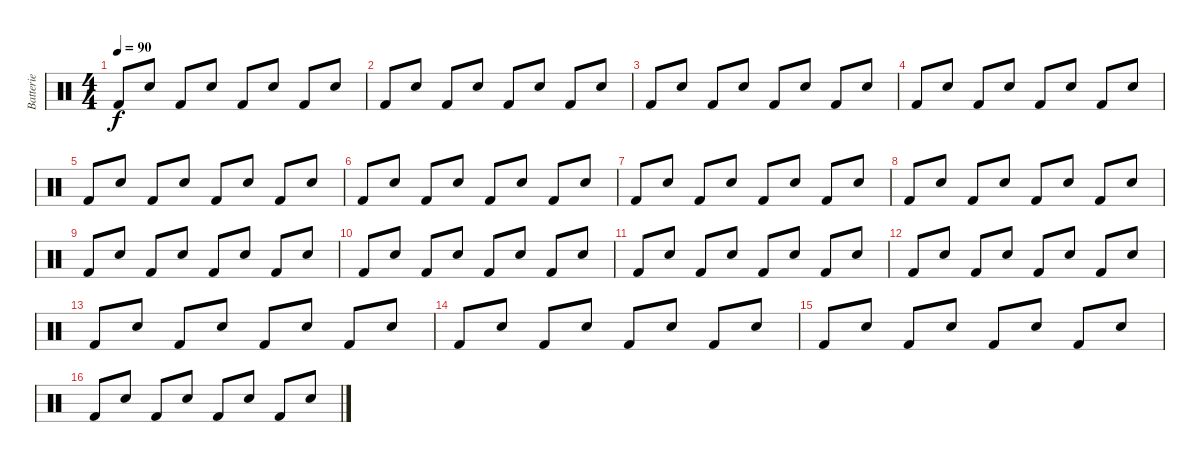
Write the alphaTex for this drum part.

\track ("Batterie" "Batterie") {instrument percussion}
\staff {score}
\articulation defaults
\ts (4 4)
\tempo 90
\clef neutral
\ks c "Kick (hit) 2".8{dy f} "Electric Snare (hit)".8 "Kick (hit) 2".8 "Electric Snare (hit)".8 "Kick (hit) 2".8 "Electric Snare (hit)".8 "Kick (hit) 2".8 "Electric Snare (hit)".8
|
"Kick (hit) 2".8 "Electric Snare (hit)".8 "Kick (hit) 2".8 "Electric Snare (hit)".8 "Kick (hit) 2".8 "Electric Snare (hit)".8 "Kick (hit) 2".8 "Electric Snare (hit)".8 |
"Kick (hit) 2".8 "Electric Snare (hit)".8 "Kick (hit) 2".8 "Electric Snare (hit)".8 "Kick (hit) 2".8 "Electric Snare (hit)".8 "Kick (hit) 2".8 "Electric Snare (hit)".8 |
"Kick (hit) 2".8 "Electric Snare (hit)".8 "Kick (hit) 2".8 "Electric Snare (hit)".8 "Kick (hit) 2".8 "Electric Snare (hit)".8 "Kick (hit) 2".8 "Electric Snare (hit)".8 |
"Kick (hit) 2".8 "Electric Snare (hit)".8 "Kick (hit) 2".8 "Electric Snare (hit)".8 "Kick (hit) 2".8 "Electric Snare (hit)".8 "Kick (hit) 2".8 "Electric Snare (hit)".8 |
"Kick (hit) 2".8 "Electric Snare (hit)".8 "Kick (hit) 2".8 "Electric Snare (hit)".8 "Kick (hit) 2".8 "Electric Snare (hit)".8 "Kick (hit) 2".8 "Electric Snare (hit)".8 |
"Kick (hit) 2".8 "Electric Snare (hit)".8 "Kick (hit) 2".8 "Electric Snare (hit)".8 "Kick (hit) 2".8 "Electric Snare (hit)".8 "Kick (hit) 2".8 "Electric Snare (hit)".8 |
"Kick (hit) 2".8 "Electric Snare (hit)".8 "Kick (hit) 2".8 "Electric Snare (hit)".8 "Kick (hit) 2".8 "Electric Snare (hit)".8 "Kick (hit) 2".8 "Electric Snare (hit)".8 |
"Kick (hit) 2".8 "Electric Snare (hit)".8 "Kick (hit) 2".8 "Electric Snare (hit)".8 "Kick (hit) 2".8 "Electric Snare (hit)".8 "Kick (hit) 2".8 "Electric Snare (hit)".8 |
"Kick (hit) 2".8 "Electric Snare (hit)".8 "Kick (hit) 2".8 "Electric Snare (hit)".8 "Kick (hit) 2".8 "Electric Snare (hit)".8 "Kick (hit) 2".8 "Electric Snare (hit)".8 |
"Kick (hit) 2".8 "Electric Snare (hit)".8 "Kick (hit) 2".8 "Electric Snare (hit)".8 "Kick (hit) 2".8 "Electric Snare (hit)".8 "Kick (hit) 2".8 "Electric Snare (hit)".8 |
"Kick (hit) 2".8 "Electric Snare (hit)".8 "Kick (hit) 2".8 "Electric Snare (hit)".8 "Kick (hit) 2".8 "Electric Snare (hit)".8 "Kick (hit) 2".8 "Electric Snare (hit)".8 |
"Kick (hit) 2".8 "Electric Snare (hit)".8 "Kick (hit) 2".8 "Electric Snare (hit)".8 "Kick (hit) 2".8 "Electric Snare (hit)".8 "Kick (hit) 2".8 "Electric Snare (hit)".8 |
"Kick (hit) 2".8 "Electric Snare (hit)".8 "Kick (hit) 2".8 "Electric Snare (hit)".8 "Kick (hit) 2".8 "Electric Snare (hit)".8 "Kick (hit) 2".8 "Electric Snare (hit)".8 |
"Kick (hit) 2".8 "Electric Snare (hit)".8 "Kick (hit) 2".8 "Electric Snare (hit)".8 "Kick (hit) 2".8 "Electric Snare (hit)".8 "Kick (hit) 2".8 "Electric Snare (hit)".8 |
"Kick (hit) 2".8 "Electric Snare (hit)".8 "Kick (hit) 2".8 "Electric Snare (hit)".8 "Kick (hit) 2".8 "Electric Snare (hit)".8 "Kick (hit) 2".8 "Electric Snare (hit)".8
